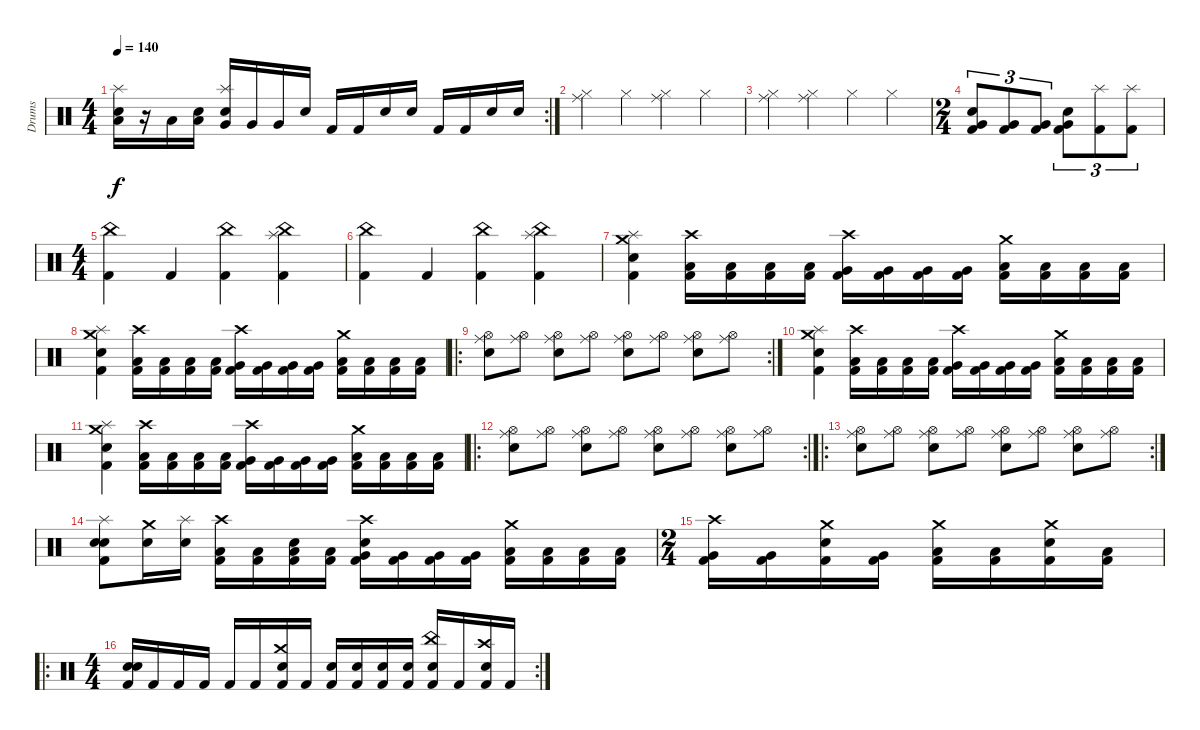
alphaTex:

\track ("Drums" "Drums") {instrument percussion}
\staff {score}
\articulation defaults
\rc 2
\ts (4 4)
\tempo 140
\clef neutral
\ks c
("Snare (hit) 2" "Splash (hit)" "Low Floor Tom (hit)").16{dy f} r.16 "Low Floor Tom (hit)".16 ("Snare (hit) 2" "Low Floor Tom (hit)").16 ("Snare (hit) 2" "Splash (hit)" "Very Low Tom (hit)").16 "Very Low Tom (hit)".16 "Very Low Tom (hit)".16 "Snare (hit) 2".16 "Kick (hit) 2".16 "Kick (hit) 2".16 "Snare (hit) 2".16 "Snare (hit) 2".16 "Kick (hit) 2".16 "Kick (hit) 2".16 "Snare (hit) 2".16 "Snare (hit) 2".16 |
("Ride (middle)" "Hi-Hat (closed)").4 "Hi-Hat (closed)".4 ("Ride (middle)" "Hi-Hat (closed)").4 "Hi-Hat (closed)".4 |
("Ride (middle)" "Hi-Hat (closed)").4 ("Ride (middle)" "Hi-Hat (closed)").4 "Hi-Hat (closed)".4 "Hi-Hat (closed)".4 |
\ts (2 4)
("Very Low Tom (hit)" "Snare (hit) 2" "Kick (hit) 2").8{tu (3 2)} ("Very Low Tom (hit)" "Kick (hit) 2").8{tu (3 2)} ("Very Low Tom (hit)" "Kick (hit) 2").8{tu (3 2)} ("Very Low Tom (hit)" "Snare (hit) 2" "Kick (hit) 2").8{tu (3 2)} ("Splash (hit)" "Kick (hit) 2").8{tu (3 2)} ("Splash (hit)" "Kick (hit) 2").8{tu (3 2)} |
\ts (4 4)
("China (hit)" "Kick (hit) 2").4 "Kick (hit) 2".4 ("China (hit)" "Kick (hit) 2").4 ("Splash (hit)" "China (hit)" "Kick (hit) 2").4 |
("China (hit)" "Kick (hit) 2").4 "Kick (hit) 2".4 ("China (hit)" "Kick (hit) 2").4 ("Splash (hit)" "China (hit)" "Kick (hit) 2").4 |
("Snare (hit) 2" "Crash medium (hit)" "Splash (hit)" "Kick (hit) 2").4 ("Crash high (hit)" "Low Floor Tom (hit)" "Kick (hit) 2").16 ("Low Floor Tom (hit)" "Kick (hit) 2").16 ("Low Floor Tom (hit)" "Kick (hit) 2").16 ("Low Floor Tom (hit)" "Kick (hit) 2").16 ("Crash high (hit)" "Very Low Tom (hit)" "Kick (hit) 2").16 ("Very Low Tom (hit)" "Kick (hit) 2").16 ("Very Low Tom (hit)" "Kick (hit) 2").16 ("Very Low Tom (hit)" "Kick (hit) 2").16 ("Crash medium (hit)" "Low Floor Tom (hit)" "Kick (hit) 2").16 ("Low Floor Tom (hit)" "Kick (hit) 2").16 ("Low Floor Tom (hit)" "Kick (hit) 2").16 ("Low Floor Tom (hit)" "Kick (hit) 2").16 |
("Snare (hit) 2" "Crash medium (hit)" "Splash (hit)" "Kick (hit) 2").4 ("Crash high (hit)" "Low Floor Tom (hit)" "Kick (hit) 2").16 ("Low Floor Tom (hit)" "Kick (hit) 2").16 ("Low Floor Tom (hit)" "Kick (hit) 2").16 ("Low Floor Tom (hit)" "Kick (hit) 2").16 ("Crash high (hit)" "Very Low Tom (hit)" "Kick (hit) 2").16 ("Very Low Tom (hit)" "Kick (hit) 2").16 ("Very Low Tom (hit)" "Kick (hit) 2").16 ("Very Low Tom (hit)" "Kick (hit) 2").16 ("Crash medium (hit)" "Low Floor Tom (hit)" "Kick (hit) 2").16 ("Low Floor Tom (hit)" "Kick (hit) 2").16 ("Low Floor Tom (hit)" "Kick (hit) 2").16 ("Low Floor Tom (hit)" "Kick (hit) 2").16 |
\ro
\rc 2
("Ride (middle)" "Snare (hit) 2" "Hi-Hat (open)").8 ("Ride (middle)" "Hi-Hat (open)").8 ("Ride (middle)" "Snare (hit) 2" "Hi-Hat (open)").8 ("Ride (middle)" "Hi-Hat (open)").8 ("Ride (middle)" "Snare (hit) 2" "Hi-Hat (open)").8 ("Ride (middle)" "Hi-Hat (open)").8 ("Ride (middle)" "Snare (hit) 2" "Hi-Hat (open)").8 ("Ride (middle)" "Hi-Hat (open)").8 |
("Snare (hit) 2" "Crash medium (hit)" "Splash (hit)" "Kick (hit) 2").4 ("Crash high (hit)" "Low Floor Tom (hit)" "Kick (hit) 2").16 ("Low Floor Tom (hit)" "Kick (hit) 2").16 ("Low Floor Tom (hit)" "Kick (hit) 2").16 ("Low Floor Tom (hit)" "Kick (hit) 2").16 ("Crash high (hit)" "Very Low Tom (hit)" "Kick (hit) 2").16 ("Very Low Tom (hit)" "Kick (hit) 2").16 ("Very Low Tom (hit)" "Kick (hit) 2").16 ("Very Low Tom (hit)" "Kick (hit) 2").16 ("Crash medium (hit)" "Low Floor Tom (hit)" "Kick (hit) 2").16 ("Low Floor Tom (hit)" "Kick (hit) 2").16 ("Low Floor Tom (hit)" "Kick (hit) 2").16 ("Low Floor Tom (hit)" "Kick (hit) 2").16 |
("Snare (hit) 2" "Crash medium (hit)" "Splash (hit)" "Kick (hit) 2").4 ("Crash high (hit)" "Low Floor Tom (hit)" "Kick (hit) 2").16 ("Low Floor Tom (hit)" "Kick (hit) 2").16 ("Low Floor Tom (hit)" "Kick (hit) 2").16 ("Low Floor Tom (hit)" "Kick (hit) 2").16 ("Crash high (hit)" "Very Low Tom (hit)" "Kick (hit) 2").16 ("Very Low Tom (hit)" "Kick (hit) 2").16 ("Very Low Tom (hit)" "Kick (hit) 2").16 ("Very Low Tom (hit)" "Kick (hit) 2").16 ("Crash medium (hit)" "Low Floor Tom (hit)" "Kick (hit) 2").16 ("Low Floor Tom (hit)" "Kick (hit) 2").16 ("Low Floor Tom (hit)" "Kick (hit) 2").16 ("Low Floor Tom (hit)" "Kick (hit) 2").16 |
\ro
\rc 2
("Ride (middle)" "Snare (hit) 2" "Hi-Hat (open)").8 ("Ride (middle)" "Hi-Hat (open)").8 ("Ride (middle)" "Snare (hit) 2" "Hi-Hat (open)").8 ("Ride (middle)" "Hi-Hat (open)").8 ("Ride (middle)" "Snare (hit) 2" "Hi-Hat (open)").8 ("Ride (middle)" "Hi-Hat (open)").8 ("Ride (middle)" "Snare (hit) 2" "Hi-Hat (open)").8 ("Ride (middle)" "Hi-Hat (open)").8 |
\ro
\rc 2
("Ride (middle)" "Snare (hit) 2" "Hi-Hat (open)").8 ("Ride (middle)" "Hi-Hat (open)").8 ("Ride (middle)" "Snare (hit) 2" "Hi-Hat (open)").8 ("Ride (middle)" "Hi-Hat (open)").8 ("Ride (middle)" "Snare (hit) 2" "Hi-Hat (open)").8 ("Ride (middle)" "Hi-Hat (open)").8 ("Ride (middle)" "Snare (hit) 2" "Hi-Hat (open)").8 ("Ride (middle)" "Hi-Hat (open)").8 |
("Snare (hit) 2" "Snare (hit) 2" "Splash (hit)" "Kick (hit) 2").8 ("Snare (hit) 2" "Crash medium (hit)").16 ("Snare (hit) 2" "Splash (hit)").16 ("Crash high (hit)" "Low Floor Tom (hit)" "Kick (hit) 2").16 ("Low Floor Tom (hit)" "Kick (hit) 2").16 ("Snare (hit) 2" "Low Floor Tom (hit)" "Kick (hit) 2").16 ("Low Floor Tom (hit)" "Kick (hit) 2").16 ("Snare (hit) 2" "Crash high (hit)" "Very Low Tom (hit)" "Kick (hit) 2").16 ("Very Low Tom (hit)" "Kick (hit) 2").16 ("Very Low Tom (hit)" "Kick (hit) 2").16 ("Very Low Tom (hit)" "Kick (hit) 2").16 ("Crash medium (hit)" "Low Floor Tom (hit)" "Kick (hit) 2").16 ("Low Floor Tom (hit)" "Kick (hit) 2").16 ("Low Floor Tom (hit)" "Kick (hit) 2").16 ("Low Floor Tom (hit)" "Kick (hit) 2").16 |
\ts (2 4)
("Crash high (hit)" "Very Low Tom (hit)" "Kick (hit) 2").16 ("Very Low Tom (hit)" "Kick (hit) 2").16 ("Crash medium (hit)" "Snare (hit) 2" "Kick (hit) 2").16 ("Very Low Tom (hit)" "Kick (hit) 2").16 ("Crash medium (hit)" "Low Floor Tom (hit)" "Kick (hit) 2").16 ("Low Floor Tom (hit)" "Kick (hit) 2").16 ("Crash medium (hit)" "Snare (hit) 2" "Kick (hit) 2").16 ("Low Floor Tom (hit)" "Kick (hit) 2").16 |
\ro
\rc 2
\ts (4 4)
("Electric Snare (hit)" "Snare (hit) 2" "Kick (hit) 2").16 "Kick (hit) 2".16 "Kick (hit) 2".16 "Kick (hit) 2".16 "Kick (hit) 2".16 "Kick (hit) 2".16 ("Crash medium (hit)" "Electric Snare (hit)" "Kick (hit) 2").16 "Kick (hit) 2".16 ("Electric Snare (hit)" "Kick (hit) 2").16 ("Snare (hit) 2" "Kick (hit) 2").16 ("Electric Snare (hit)" "Kick (hit) 2").16 ("Snare (hit) 2" "Kick (hit) 2").16 ("China (hit)" "Electric Snare (hit)" "Kick (hit) 2").16 "Kick (hit) 2".16 ("Crash high (hit)" "Electric Snare (hit)" "Kick (hit) 2").16 "Kick (hit) 2".16
